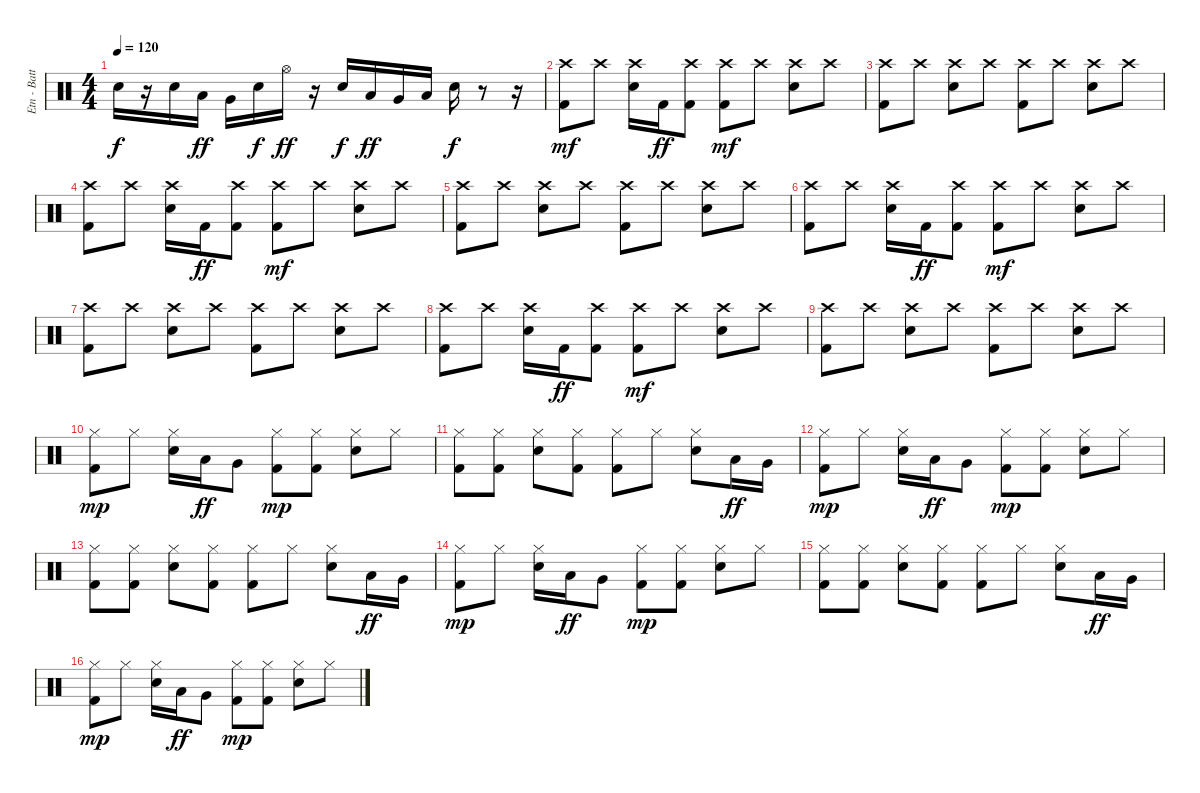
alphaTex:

\track ("Etn - Batterie" "Etn - Batt") {instrument percussion}
\staff {score}
\articulation defaults
\ts (4 4)
\tempo 120
\clef neutral
\ks c "Electric Snare (hit)".16{dy f}
r.16 "Electric Snare (hit)".16 "Low Tom (hit)".16{dy ff} "Very Low Tom (hit)".16 "Electric Snare (hit)".16{dy f} "Hi-Hat (open)".16{dy ff} r.16 "Electric Snare (hit)".16{dy f} "Low Tom (hit)".16{dy ff} "Very Low Tom (hit)".16 "Low Floor Tom (hit)".16 "Electric Snare (hit)".16{dy f} r.8 r.16 |
("Crash high (hit)" "Kick (hit) 2").8{dy mf} "Crash high (hit)".8 ("Crash high (hit)" "Electric Snare (hit)").16 "Kick (hit) 2".16{dy ff} ("Crash high (hit)" "Kick (hit) 2").8 ("Crash high (hit)" "Kick (hit) 2").8{dy mf} "Crash high (hit)".8 ("Crash high (hit)" "Electric Snare (hit)").8 "Crash high (hit)".8 |
("Crash high (hit)" "Kick (hit) 2").8 "Crash high (hit)".8 ("Crash high (hit)" "Electric Snare (hit)").8 "Crash high (hit)".8 ("Crash high (hit)" "Kick (hit) 2").8 "Crash high (hit)".8 ("Crash high (hit)" "Electric Snare (hit)").8 "Crash high (hit)".8 |
("Crash high (hit)" "Kick (hit) 2").8 "Crash high (hit)".8 ("Crash high (hit)" "Electric Snare (hit)").16 "Kick (hit) 2".16{dy ff} ("Crash high (hit)" "Kick (hit) 2").8 ("Crash high (hit)" "Kick (hit) 2").8{dy mf} "Crash high (hit)".8 ("Crash high (hit)" "Electric Snare (hit)").8 "Crash high (hit)".8 |
("Crash high (hit)" "Kick (hit) 2").8 "Crash high (hit)".8 ("Crash high (hit)" "Electric Snare (hit)").8 "Crash high (hit)".8 ("Crash high (hit)" "Kick (hit) 2").8 "Crash high (hit)".8 ("Crash high (hit)" "Electric Snare (hit)").8 "Crash high (hit)".8 |
("Crash high (hit)" "Kick (hit) 2").8 "Crash high (hit)".8 ("Crash high (hit)" "Electric Snare (hit)").16 "Kick (hit) 2".16{dy ff} ("Crash high (hit)" "Kick (hit) 2").8 ("Crash high (hit)" "Kick (hit) 2").8{dy mf} "Crash high (hit)".8 ("Crash high (hit)" "Electric Snare (hit)").8 "Crash high (hit)".8 |
("Crash high (hit)" "Kick (hit) 2").8 "Crash high (hit)".8 ("Crash high (hit)" "Electric Snare (hit)").8 "Crash high (hit)".8 ("Crash high (hit)" "Kick (hit) 2").8 "Crash high (hit)".8 ("Crash high (hit)" "Electric Snare (hit)").8 "Crash high (hit)".8 |
("Crash high (hit)" "Kick (hit) 2").8 "Crash high (hit)".8 ("Crash high (hit)" "Electric Snare (hit)").16 "Kick (hit) 2".16{dy ff} ("Crash high (hit)" "Kick (hit) 2").8 ("Crash high (hit)" "Kick (hit) 2").8{dy mf} "Crash high (hit)".8 ("Crash high (hit)" "Electric Snare (hit)").8 "Crash high (hit)".8 |
("Crash high (hit)" "Kick (hit) 2").8 "Crash high (hit)".8 ("Crash high (hit)" "Electric Snare (hit)").8 "Crash high (hit)".8 ("Crash high (hit)" "Kick (hit) 2").8 "Crash high (hit)".8 ("Crash high (hit)" "Electric Snare (hit)").8 "Crash high (hit)".8 |
("Hi-Hat (closed)" "Kick (hit) 2").8{dy mp} "Hi-Hat (closed)".8 ("Hi-Hat (closed)" "Electric Snare (hit)").16 "Low Tom (hit)".16{dy ff} "Very Low Tom (hit)".8 ("Hi-Hat (closed)" "Kick (hit) 2").8{dy mp} ("Hi-Hat (closed)" "Kick (hit) 2").8 ("Hi-Hat (closed)" "Electric Snare (hit)").8 "Hi-Hat (closed)".8 |
("Hi-Hat (closed)" "Kick (hit) 2").8 ("Hi-Hat (closed)" "Kick (hit) 2").8 ("Hi-Hat (closed)" "Electric Snare (hit)").8 ("Hi-Hat (closed)" "Kick (hit) 2").8 ("Hi-Hat (closed)" "Kick (hit) 2").8 "Hi-Hat (closed)".8 ("Hi-Hat (closed)" "Electric Snare (hit)").8 "Low Tom (hit)".16{dy ff} "Very Low Tom (hit)".16 |
("Hi-Hat (closed)" "Kick (hit) 2").8{dy mp} "Hi-Hat (closed)".8 ("Hi-Hat (closed)" "Electric Snare (hit)").16 "Low Tom (hit)".16{dy ff} "Very Low Tom (hit)".8 ("Hi-Hat (closed)" "Kick (hit) 2").8{dy mp} ("Hi-Hat (closed)" "Kick (hit) 2").8 ("Hi-Hat (closed)" "Electric Snare (hit)").8 "Hi-Hat (closed)".8 |
("Hi-Hat (closed)" "Kick (hit) 2").8 ("Hi-Hat (closed)" "Kick (hit) 2").8 ("Hi-Hat (closed)" "Electric Snare (hit)").8 ("Hi-Hat (closed)" "Kick (hit) 2").8 ("Hi-Hat (closed)" "Kick (hit) 2").8 "Hi-Hat (closed)".8 ("Hi-Hat (closed)" "Electric Snare (hit)").8 "Low Tom (hit)".16{dy ff} "Very Low Tom (hit)".16 |
("Hi-Hat (closed)" "Kick (hit) 2").8{dy mp} "Hi-Hat (closed)".8 ("Hi-Hat (closed)" "Electric Snare (hit)").16 "Low Tom (hit)".16{dy ff} "Very Low Tom (hit)".8 ("Hi-Hat (closed)" "Kick (hit) 2").8{dy mp} ("Hi-Hat (closed)" "Kick (hit) 2").8 ("Hi-Hat (closed)" "Electric Snare (hit)").8 "Hi-Hat (closed)".8 |
("Hi-Hat (closed)" "Kick (hit) 2").8 ("Hi-Hat (closed)" "Kick (hit) 2").8 ("Hi-Hat (closed)" "Electric Snare (hit)").8 ("Hi-Hat (closed)" "Kick (hit) 2").8 ("Hi-Hat (closed)" "Kick (hit) 2").8 "Hi-Hat (closed)".8 ("Hi-Hat (closed)" "Electric Snare (hit)").8 "Low Tom (hit)".16{dy ff} "Very Low Tom (hit)".16 |
("Hi-Hat (closed)" "Kick (hit) 2").8{dy mp} "Hi-Hat (closed)".8 ("Hi-Hat (closed)" "Electric Snare (hit)").16 "Low Tom (hit)".16{dy ff} "Very Low Tom (hit)".8 ("Hi-Hat (closed)" "Kick (hit) 2").8{dy mp} ("Hi-Hat (closed)" "Kick (hit) 2").8 ("Hi-Hat (closed)" "Electric Snare (hit)").8 "Hi-Hat (closed)".8
